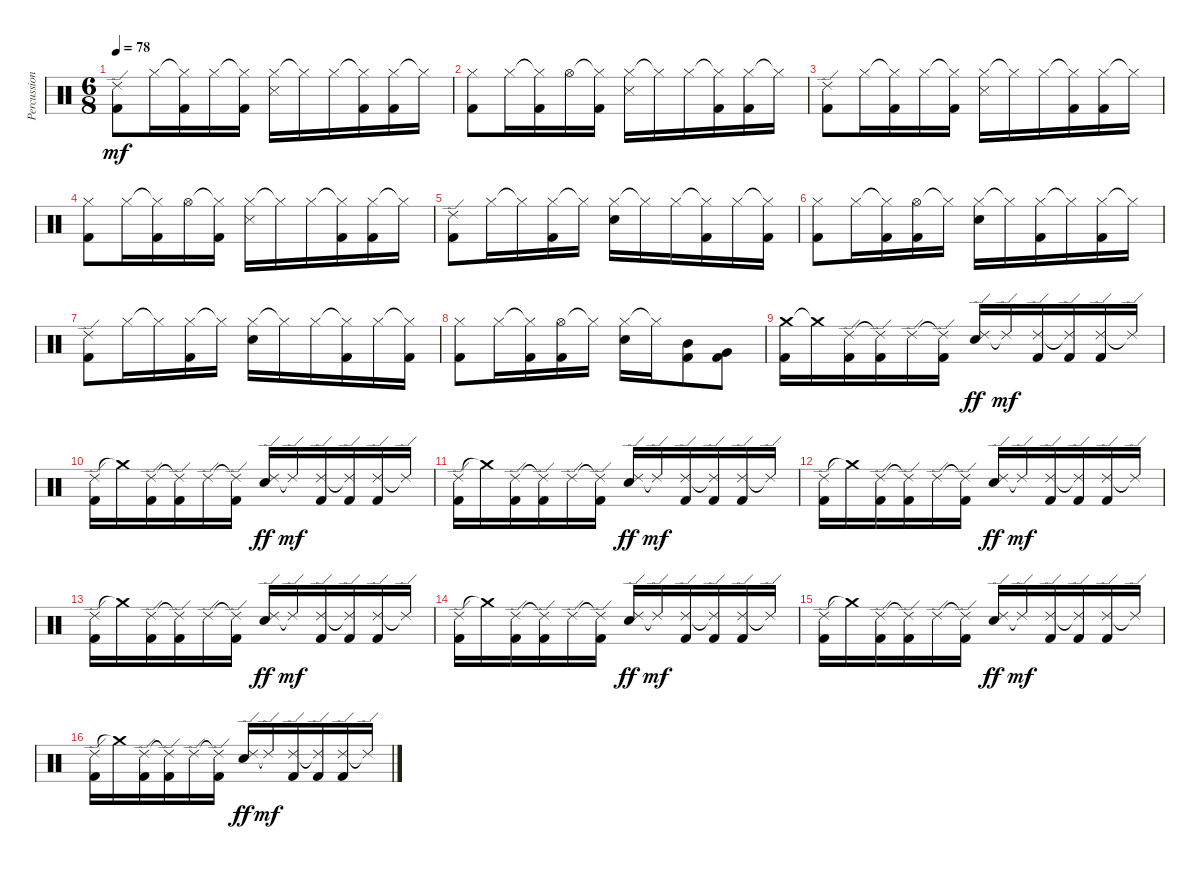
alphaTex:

\track ("Percussion" "Percussion") {instrument percussion}
\staff {score}
\articulation defaults
\ts (6 8)
\tempo 78
\clef neutral
\ks c
("Ride (edge) 2" "Kick (hit) 2").8{dy mf} "Hi-Hat (closed)".16 ("Hi-Hat (closed)"{t} "Kick (hit) 2").16 "Hi-Hat (closed)".16 ("Hi-Hat (closed)"{t} "Kick (hit) 2").16 ("Hi-Hat (closed)" "Snare (side stick) 3").16 "Hi-Hat (closed)"{t}.16 "Hi-Hat (closed)".16 ("Hi-Hat (closed)"{t} "Kick (hit) 2").16 ("Hi-Hat (closed)" "Kick (hit) 2").16 "Hi-Hat (closed)"{t}.16 |
("Hi-Hat (closed)" "Kick (hit) 2").8 "Hi-Hat (closed)".16 ("Hi-Hat (closed)"{t} "Kick (hit) 2").16 "Hi-Hat (open)".16 ("Hi-Hat (closed)"{t} "Kick (hit) 2").16 ("Hi-Hat (closed)" "Snare (side stick) 3").16 "Hi-Hat (closed)"{t}.16 "Hi-Hat (closed)".16 ("Hi-Hat (closed)"{t} "Kick (hit) 2").16 ("Hi-Hat (closed)" "Kick (hit) 2").16 "Hi-Hat (closed)"{t}.16 |
("Ride (edge) 2" "Kick (hit) 2").8 "Hi-Hat (closed)".16 ("Hi-Hat (closed)"{t} "Kick (hit) 2").16 "Hi-Hat (closed)".16 ("Hi-Hat (closed)"{t} "Kick (hit) 2").16 ("Hi-Hat (closed)" "Snare (side stick) 3").16 "Hi-Hat (closed)"{t}.16 "Hi-Hat (closed)".16 ("Hi-Hat (closed)"{t} "Kick (hit) 2").16 ("Hi-Hat (closed)" "Kick (hit) 2").16 "Hi-Hat (closed)"{t}.16 |
("Hi-Hat (closed)" "Kick (hit) 2").8 "Hi-Hat (closed)".16 ("Hi-Hat (closed)"{t} "Kick (hit) 2").16 "Hi-Hat (open)".16 ("Hi-Hat (closed)"{t} "Kick (hit) 2").16 ("Hi-Hat (closed)" "Snare (side stick) 3").16 "Hi-Hat (closed)"{t}.16 "Hi-Hat (closed)".16 ("Hi-Hat (closed)"{t} "Kick (hit) 2").16 ("Hi-Hat (closed)" "Kick (hit) 2").16 "Hi-Hat (closed)"{t}.16 |
("Ride (edge) 2" "Kick (hit) 2").8 "Hi-Hat (closed)".16 "Hi-Hat (closed)"{t}.16 ("Hi-Hat (closed)" "Kick (hit) 2").16 "Hi-Hat (closed)"{t}.16 ("Hi-Hat (closed)" "Electric Snare (hit)").16 "Hi-Hat (closed)"{t}.16 "Hi-Hat (closed)".16 ("Hi-Hat (closed)"{t} "Kick (hit) 2").16 "Hi-Hat (closed)".16 ("Hi-Hat (closed)"{t} "Kick (hit) 2").16 |
("Hi-Hat (closed)" "Kick (hit) 2").8 "Hi-Hat (closed)".16 ("Hi-Hat (closed)"{t} "Kick (hit) 2").16 ("Hi-Hat (open)" "Kick (hit) 2").16 "Hi-Hat (closed)"{t}.16 ("Hi-Hat (closed)" "Electric Snare (hit)").16 "Hi-Hat (closed)"{t}.16 ("Hi-Hat (closed)" "Kick (hit) 2").16 "Hi-Hat (closed)"{t}.16 ("Hi-Hat (closed)" "Kick (hit) 2").16 "Hi-Hat (closed)"{t}.16 |
("Ride (edge) 2" "Kick (hit) 2").8 "Hi-Hat (closed)".16 "Hi-Hat (closed)"{t}.16 ("Hi-Hat (closed)" "Kick (hit) 2").16 "Hi-Hat (closed)"{t}.16 ("Hi-Hat (closed)" "Electric Snare (hit)").16 "Hi-Hat (closed)"{t}.16 "Hi-Hat (closed)".16 ("Hi-Hat (closed)"{t} "Kick (hit) 2").16 "Hi-Hat (closed)".16 ("Hi-Hat (closed)"{t} "Kick (hit) 2").16 |
("Hi-Hat (closed)" "Kick (hit) 2").8 "Hi-Hat (closed)".16 ("Hi-Hat (closed)"{t} "Kick (hit) 2").16 ("Hi-Hat (open)" "Kick (hit) 2").16 "Hi-Hat (closed)"{t}.16 ("Hi-Hat (closed)" "Electric Snare (hit)").16 "Hi-Hat (closed)"{t}.16 ("Mid Tom (hit)" "Kick (hit) 2").8 ("Very Low Tom (hit)" "Kick (hit) 2").8 |
("Crash medium (hit)" "Kick (hit) 2").16 "Crash medium (hit)"{t}.16 ("Ride (edge) 2" "Kick (hit) 2").16 ("Ride (edge) 2"{t} "Kick (hit) 2").16 "Ride (edge) 2".16 ("Ride (edge) 2"{t} "Kick (hit) 2").16 ("Ride (edge) 2" "Electric Snare (hit)").16{dy ff} "Ride (edge) 2"{t}.16{dy mf} ("Ride (edge) 2" "Kick (hit) 2").16 ("Ride (edge) 2"{t} "Kick (hit) 2").16 ("Ride (edge) 2" "Kick (hit) 2").16 "Ride (edge) 2"{t}.16 |
("Ride (edge) 2" "Kick (hit) 2").16 "Crash medium (hit)"{t}.16 ("Ride (edge) 2" "Kick (hit) 2").16 ("Ride (edge) 2"{t} "Kick (hit) 2").16 "Ride (edge) 2".16 ("Ride (edge) 2"{t} "Kick (hit) 2").16 ("Ride (edge) 2" "Electric Snare (hit)").16{dy ff} "Ride (edge) 2"{t}.16{dy mf} ("Ride (edge) 2" "Kick (hit) 2").16 ("Ride (edge) 2"{t} "Kick (hit) 2").16 ("Ride (edge) 2" "Kick (hit) 2").16 "Ride (edge) 2"{t}.16 |
("Ride (edge) 2" "Kick (hit) 2").16 "Crash medium (hit)"{t}.16 ("Ride (edge) 2" "Kick (hit) 2").16 ("Ride (edge) 2"{t} "Kick (hit) 2").16 "Ride (edge) 2".16 ("Ride (edge) 2"{t} "Kick (hit) 2").16 ("Ride (edge) 2" "Electric Snare (hit)").16{dy ff} "Ride (edge) 2"{t}.16{dy mf} ("Ride (edge) 2" "Kick (hit) 2").16 ("Ride (edge) 2"{t} "Kick (hit) 2").16 ("Ride (edge) 2" "Kick (hit) 2").16 "Ride (edge) 2"{t}.16 |
("Ride (edge) 2" "Kick (hit) 2").16 "Crash medium (hit)"{t}.16 ("Ride (edge) 2" "Kick (hit) 2").16 ("Ride (edge) 2"{t} "Kick (hit) 2").16 "Ride (edge) 2".16 ("Ride (edge) 2"{t} "Kick (hit) 2").16 ("Ride (edge) 2" "Electric Snare (hit)").16{dy ff} "Ride (edge) 2"{t}.16{dy mf} ("Ride (edge) 2" "Kick (hit) 2").16 ("Ride (edge) 2"{t} "Kick (hit) 2").16 ("Ride (edge) 2" "Kick (hit) 2").16 "Ride (edge) 2"{t}.16 |
("Ride (edge) 2" "Kick (hit) 2").16 "Crash medium (hit)"{t}.16 ("Ride (edge) 2" "Kick (hit) 2").16 ("Ride (edge) 2"{t} "Kick (hit) 2").16 "Ride (edge) 2".16 ("Ride (edge) 2"{t} "Kick (hit) 2").16 ("Ride (edge) 2" "Electric Snare (hit)").16{dy ff} "Ride (edge) 2"{t}.16{dy mf} ("Ride (edge) 2" "Kick (hit) 2").16 ("Ride (edge) 2"{t} "Kick (hit) 2").16 ("Ride (edge) 2" "Kick (hit) 2").16 "Ride (edge) 2"{t}.16 |
("Ride (edge) 2" "Kick (hit) 2").16 "Crash medium (hit)"{t}.16 ("Ride (edge) 2" "Kick (hit) 2").16 ("Ride (edge) 2"{t} "Kick (hit) 2").16 "Ride (edge) 2".16 ("Ride (edge) 2"{t} "Kick (hit) 2").16 ("Ride (edge) 2" "Electric Snare (hit)").16{dy ff} "Ride (edge) 2"{t}.16{dy mf} ("Ride (edge) 2" "Kick (hit) 2").16 ("Ride (edge) 2"{t} "Kick (hit) 2").16 ("Ride (edge) 2" "Kick (hit) 2").16 "Ride (edge) 2"{t}.16 |
("Ride (edge) 2" "Kick (hit) 2").16 "Crash medium (hit)"{t}.16 ("Ride (edge) 2" "Kick (hit) 2").16 ("Ride (edge) 2"{t} "Kick (hit) 2").16 "Ride (edge) 2".16 ("Ride (edge) 2"{t} "Kick (hit) 2").16 ("Ride (edge) 2" "Electric Snare (hit)").16{dy ff} "Ride (edge) 2"{t}.16{dy mf} ("Ride (edge) 2" "Kick (hit) 2").16 ("Ride (edge) 2"{t} "Kick (hit) 2").16 ("Ride (edge) 2" "Kick (hit) 2").16 "Ride (edge) 2"{t}.16 |
("Ride (edge) 2" "Kick (hit) 2").16 "Crash medium (hit)"{t}.16 ("Ride (edge) 2" "Kick (hit) 2").16 ("Ride (edge) 2"{t} "Kick (hit) 2").16 "Ride (edge) 2".16 ("Ride (edge) 2"{t} "Kick (hit) 2").16 ("Ride (edge) 2" "Electric Snare (hit)").16{dy ff} "Ride (edge) 2"{t}.16{dy mf} ("Ride (edge) 2" "Kick (hit) 2").16 ("Ride (edge) 2"{t} "Kick (hit) 2").16 ("Ride (edge) 2" "Kick (hit) 2").16 "Ride (edge) 2"{t}.16
